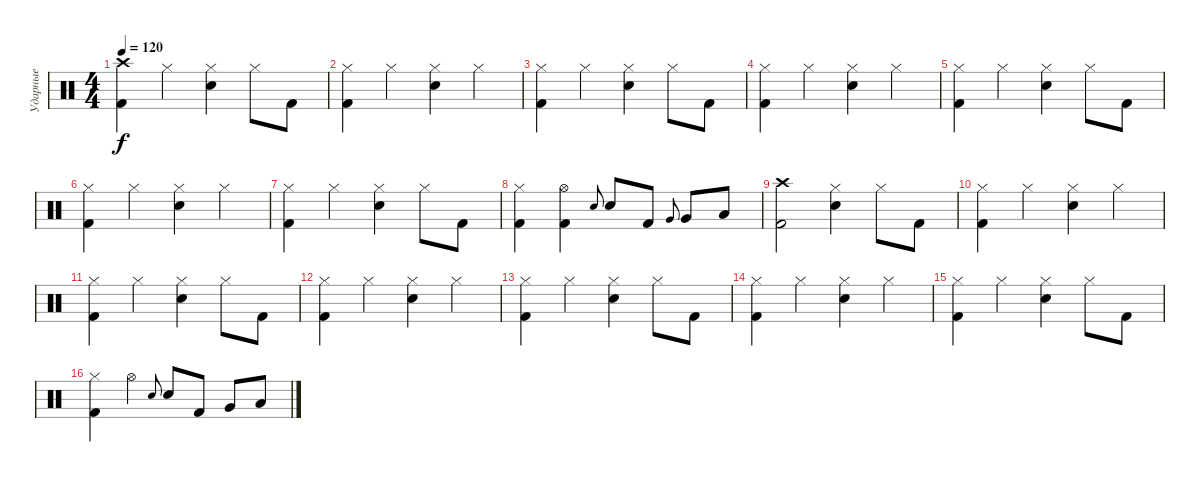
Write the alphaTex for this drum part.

\track ("Ударные" "Ударные") {instrument percussion}
\staff {score}
\articulation defaults
\ts (4 4)
\tempo 120
\clef neutral
\ks c
("Crash high (hit)" "Kick (hit) 2").4{dy f} "Hi-Hat (closed)".4 ("Hi-Hat (closed)" "Snare (hit) 2").4 "Hi-Hat (closed)".8 "Kick (hit) 2".8 |
("Hi-Hat (closed)" "Kick (hit) 2").4 "Hi-Hat (closed)".4 ("Hi-Hat (closed)" "Snare (hit) 2").4 "Hi-Hat (closed)".4 |
("Hi-Hat (closed)" "Kick (hit) 2").4 "Hi-Hat (closed)".4 ("Hi-Hat (closed)" "Snare (hit) 2").4 "Hi-Hat (closed)".8 "Kick (hit) 2".8 |
("Hi-Hat (closed)" "Kick (hit) 2").4 "Hi-Hat (closed)".4 ("Hi-Hat (closed)" "Snare (hit) 2").4 "Hi-Hat (closed)".4 |
("Hi-Hat (closed)" "Kick (hit) 2").4 "Hi-Hat (closed)".4 ("Hi-Hat (closed)" "Snare (hit) 2").4 "Hi-Hat (closed)".8 "Kick (hit) 2".8 |
("Hi-Hat (closed)" "Kick (hit) 2").4 "Hi-Hat (closed)".4 ("Hi-Hat (closed)" "Snare (hit) 2").4 "Hi-Hat (closed)".4 |
("Hi-Hat (closed)" "Kick (hit) 2").4 "Hi-Hat (closed)".4 ("Hi-Hat (closed)" "Snare (hit) 2").4 "Hi-Hat (closed)".8 "Kick (hit) 2".8 |
("Hi-Hat (closed)" "Kick (hit) 2").4 ("Hi-Hat (open)" "Kick (hit) 2").4 "Snare (hit) 2".8{gr onbeat} "Snare (hit) 2".8 "Kick (hit) 2".8 "Very Low Tom (hit)".8{gr onbeat} "Very Low Tom (hit)".8 "Low Floor Tom (hit)".8 |
("Crash high (hit)" "Kick (hit) 2").2 ("Hi-Hat (closed)" "Snare (hit) 2").4 "Hi-Hat (closed)".8 "Kick (hit) 2".8 |
("Hi-Hat (closed)" "Kick (hit) 2").4 "Hi-Hat (closed)".4 ("Hi-Hat (closed)" "Snare (hit) 2").4 "Hi-Hat (closed)".4 |
("Hi-Hat (closed)" "Kick (hit) 2").4 "Hi-Hat (closed)".4 ("Hi-Hat (closed)" "Snare (hit) 2").4 "Hi-Hat (closed)".8 "Kick (hit) 2".8 |
("Hi-Hat (closed)" "Kick (hit) 2").4 "Hi-Hat (closed)".4 ("Hi-Hat (closed)" "Snare (hit) 2").4 "Hi-Hat (closed)".4 |
("Hi-Hat (closed)" "Kick (hit) 2").4 "Hi-Hat (closed)".4 ("Hi-Hat (closed)" "Snare (hit) 2").4 "Hi-Hat (closed)".8 "Kick (hit) 2".8 |
("Hi-Hat (closed)" "Kick (hit) 2").4 "Hi-Hat (closed)".4 ("Hi-Hat (closed)" "Snare (hit) 2").4 "Hi-Hat (closed)".4 |
("Hi-Hat (closed)" "Kick (hit) 2").4 "Hi-Hat (closed)".4 ("Hi-Hat (closed)" "Snare (hit) 2").4 "Hi-Hat (closed)".8 "Kick (hit) 2".8 |
("Hi-Hat (closed)" "Kick (hit) 2").4 "Hi-Hat (open)".4 "Snare (hit) 2".8{gr onbeat} "Snare (hit) 2".8 "Kick (hit) 2".8 "Very Low Tom (hit)".8 "Low Floor Tom (hit)".8
